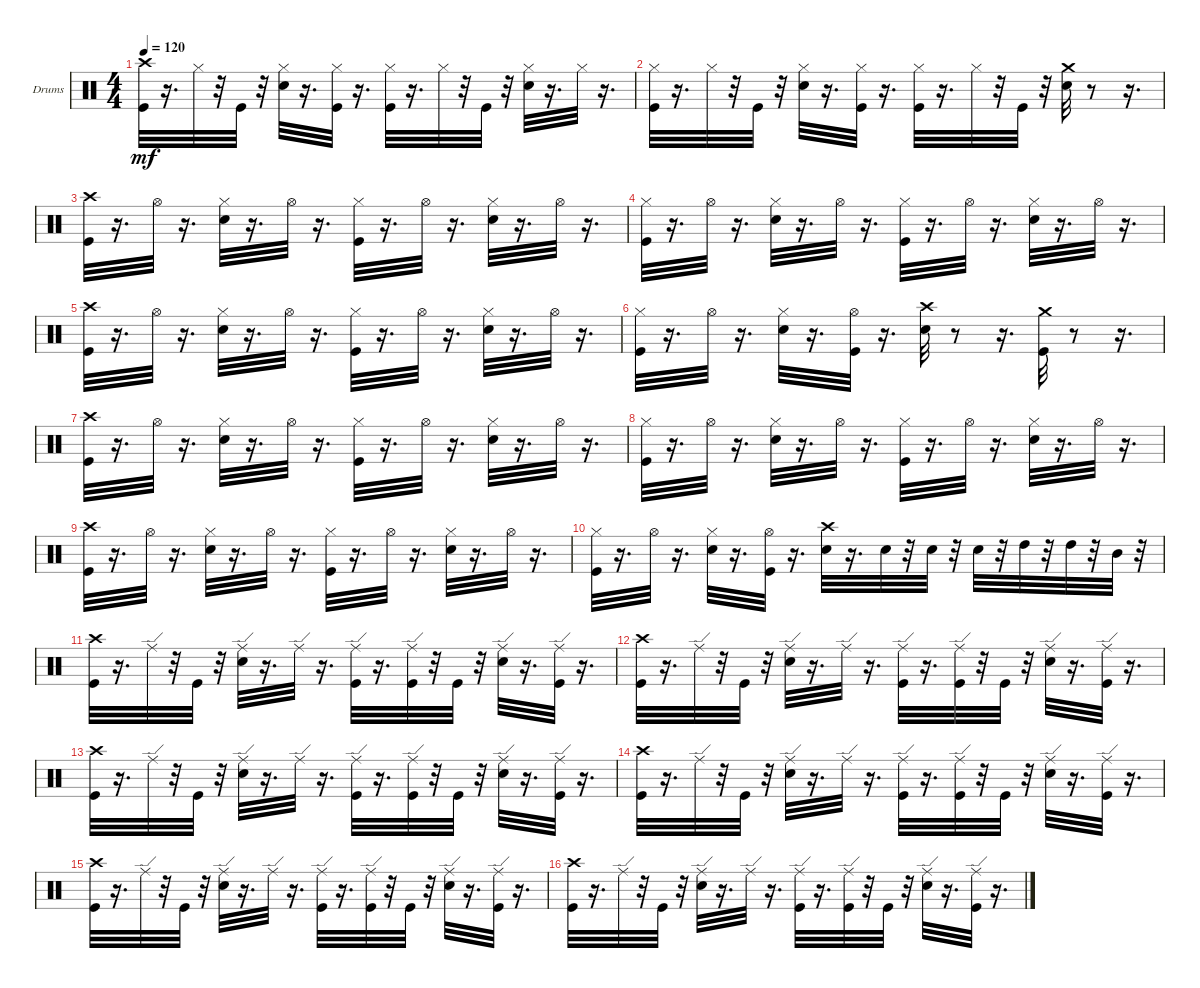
\bracketExtendMode groupsimilarinstruments
\firstSystemTrackNameOrientation horizontal
\otherSystemsTrackNameOrientation horizontal
\track ("" "Drums") {instrument percussion}
\staff {score}
\articulation defaults
\ts (4 4)
\tempo 120
\clef neutral
\ks c
("Crash high (hit)" "Kick (hit)").32{dy mf} r.16{d} "Hi-Hat (closed)".32 r.32 "Kick (hit)".32 r.32 ("Hi-Hat (closed)" "Snare (hit) 2").32 r.16{d} ("Hi-Hat (closed)" "Kick (hit)").32 r.16{d} ("Hi-Hat (closed)" "Kick (hit)").32 r.16{d} "Hi-Hat (closed)".32 r.32 "Kick (hit)".32 r.32 ("Hi-Hat (closed)" "Snare (hit) 2").32 r.16{d} "Hi-Hat (closed)".32 r.16{d} |
("Hi-Hat (closed)" "Kick (hit)").32 r.16{d} "Hi-Hat (closed)".32 r.32 "Kick (hit)".32 r.32 ("Hi-Hat (closed)" "Snare (hit) 2").32 r.16{d} ("Hi-Hat (closed)" "Kick (hit)").32 r.16{d} ("Hi-Hat (closed)" "Kick (hit)").32 r.16{d} "Hi-Hat (closed)".32 r.32 "Kick (hit)".32 r.32 ("Crash medium (hit)" "Snare (hit) 2").32 r.8 r.16{d} |
("Crash high (hit)" "Kick (hit)").32 r.16{d} "Hi-Hat (open)".32 r.16{d} ("Snare (hit) 2" "Hi-Hat (closed)").32 r.16{d} "Hi-Hat (open)".32 r.16{d} ("Kick (hit)" "Hi-Hat (closed)").32 r.16{d} "Hi-Hat (open)".32 r.16{d} ("Snare (hit) 2" "Hi-Hat (closed)").32 r.16{d} "Hi-Hat (open)".32 r.16{d} |
("Hi-Hat (closed)" "Kick (hit)").32 r.16{d} "Hi-Hat (open)".32 r.16{d} ("Snare (hit) 2" "Hi-Hat (closed)").32 r.16{d} "Hi-Hat (open)".32 r.16{d} ("Kick (hit)" "Hi-Hat (closed)").32 r.16{d} "Hi-Hat (open)".32 r.16{d} ("Snare (hit) 2" "Hi-Hat (closed)").32 r.16{d} "Hi-Hat (open)".32 r.16{d} |
("Crash high (hit)" "Kick (hit)").32 r.16{d} "Hi-Hat (open)".32 r.16{d} ("Snare (hit) 2" "Hi-Hat (closed)").32 r.16{d} "Hi-Hat (open)".32 r.16{d} ("Kick (hit)" "Hi-Hat (closed)").32 r.16{d} "Hi-Hat (open)".32 r.16{d} ("Snare (hit) 2" "Hi-Hat (closed)").32 r.16{d} "Hi-Hat (open)".32 r.16{d} |
("Hi-Hat (closed)" "Kick (hit)").32 r.16{d} "Hi-Hat (open)".32 r.16{d} ("Snare (hit) 2" "Hi-Hat (closed)").32 r.16{d} ("Kick (hit)" "Hi-Hat (open)").32 r.16{d} ("Crash high (hit)" "Snare (hit) 2").32 r.8 r.16{d} ("Crash medium (hit)" "Kick (hit)").32 r.8 r.16{d} |
("Crash high (hit)" "Kick (hit)").32 r.16{d} "Hi-Hat (open)".32 r.16{d} ("Snare (hit) 2" "Hi-Hat (closed)").32 r.16{d} "Hi-Hat (open)".32 r.16{d} ("Kick (hit)" "Hi-Hat (closed)").32 r.16{d} "Hi-Hat (open)".32 r.16{d} ("Snare (hit) 2" "Hi-Hat (closed)").32 r.16{d} "Hi-Hat (open)".32 r.16{d} |
("Hi-Hat (closed)" "Kick (hit)").32 r.16{d} "Hi-Hat (open)".32 r.16{d} ("Snare (hit) 2" "Hi-Hat (closed)").32 r.16{d} "Hi-Hat (open)".32 r.16{d} ("Kick (hit)" "Hi-Hat (closed)").32 r.16{d} "Hi-Hat (open)".32 r.16{d} ("Snare (hit) 2" "Hi-Hat (closed)").32 r.16{d} "Hi-Hat (open)".32 r.16{d} |
("Crash high (hit)" "Kick (hit)").32 r.16{d} "Hi-Hat (open)".32 r.16{d} ("Snare (hit) 2" "Hi-Hat (closed)").32 r.16{d} "Hi-Hat (open)".32 r.16{d} ("Kick (hit)" "Hi-Hat (closed)").32 r.16{d} "Hi-Hat (open)".32 r.16{d} ("Snare (hit) 2" "Hi-Hat (closed)").32 r.16{d} "Hi-Hat (open)".32 r.16{d} |
("Hi-Hat (closed)" "Kick (hit)").32 r.16{d} "Hi-Hat (open)".32 r.16{d} ("Snare (hit) 2" "Hi-Hat (closed)").32 r.16{d} ("Kick (hit)" "Hi-Hat (open)").32 r.16{d} ("Crash high (hit)" "Snare (hit) 2").32 r.16{d} "Snare (hit) 2".32 r.32 "Snare (hit) 2".32 r.32 "Snare (hit) 2".32 r.32 "High Tom (hit)".32 r.32 "High Tom (hit)".32 r.32 "Mid Tom (hit)".32 r.32 |
("Crash high (hit)" "Kick (hit)").32 r.16{d} "Ride (edge)".32 r.32 "Kick (hit)".32 r.32 ("Snare (hit) 2" "Ride (edge)").32 r.16{d} "Ride (edge)".32 r.16{d} ("Kick (hit)" "Ride (edge)").32 r.16{d} ("Kick (hit)" "Ride (edge)").32 r.32 "Kick (hit)".32 r.32 ("Snare (hit) 2" "Ride (edge)").32 r.16{d} ("Kick (hit)" "Ride (edge)").32 r.16{d} |
("Crash high (hit)" "Kick (hit)").32 r.16{d} "Ride (edge)".32 r.32 "Kick (hit)".32 r.32 ("Snare (hit) 2" "Ride (edge)").32 r.16{d} "Ride (edge)".32 r.16{d} ("Kick (hit)" "Ride (edge)").32 r.16{d} ("Kick (hit)" "Ride (edge)").32 r.32 "Kick (hit)".32 r.32 ("Snare (hit) 2" "Ride (edge)").32 r.16{d} ("Kick (hit)" "Ride (edge)").32 r.16{d} |
("Crash high (hit)" "Kick (hit)").32 r.16{d} "Ride (edge)".32 r.32 "Kick (hit)".32 r.32 ("Snare (hit) 2" "Ride (edge)").32 r.16{d} "Ride (edge)".32 r.16{d} ("Kick (hit)" "Ride (edge)").32 r.16{d} ("Kick (hit)" "Ride (edge)").32 r.32 "Kick (hit)".32 r.32 ("Snare (hit) 2" "Ride (edge)").32 r.16{d} ("Kick (hit)" "Ride (edge)").32 r.16{d} |
("Crash high (hit)" "Kick (hit)").32 r.16{d} "Ride (edge)".32 r.32 "Kick (hit)".32 r.32 ("Snare (hit) 2" "Ride (edge)").32 r.16{d} "Ride (edge)".32 r.16{d} ("Kick (hit)" "Ride (edge)").32 r.16{d} ("Kick (hit)" "Ride (edge)").32 r.32 "Kick (hit)".32 r.32 ("Snare (hit) 2" "Ride (edge)").32 r.16{d} ("Kick (hit)" "Ride (edge)").32 r.16{d} |
("Crash high (hit)" "Kick (hit)").32 r.16{d} "Ride (edge)".32 r.32 "Kick (hit)".32 r.32 ("Snare (hit) 2" "Ride (edge)").32 r.16{d} "Ride (edge)".32 r.16{d} ("Kick (hit)" "Ride (edge)").32 r.16{d} ("Kick (hit)" "Ride (edge)").32 r.32 "Kick (hit)".32 r.32 ("Snare (hit) 2" "Ride (edge)").32 r.16{d} ("Kick (hit)" "Ride (edge)").32 r.16{d} |
("Crash high (hit)" "Kick (hit)").32 r.16{d} "Ride (edge)".32 r.32 "Kick (hit)".32 r.32 ("Snare (hit) 2" "Ride (edge)").32 r.16{d} "Ride (edge)".32 r.16{d} ("Kick (hit)" "Ride (edge)").32 r.16{d} ("Kick (hit)" "Ride (edge)").32 r.32 "Kick (hit)".32 r.32 ("Snare (hit) 2" "Ride (edge)").32 r.16{d} ("Kick (hit)" "Ride (edge)").32 r.16{d}
